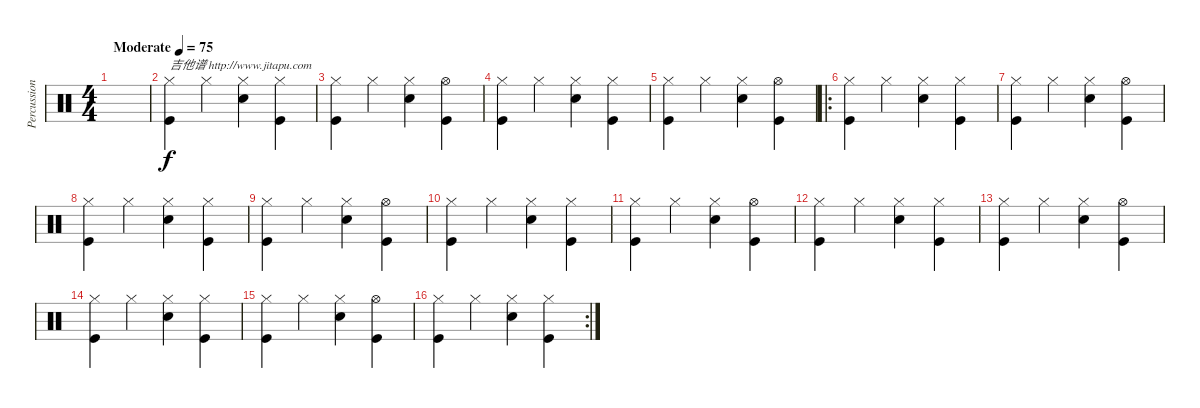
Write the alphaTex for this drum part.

\track ("Percussion" "Percussion") {instrument percussion}
\staff {score}
\articulation defaults
\ts (4 4)
\tempo (75 "Moderate")
\clef neutral
\ks c
|
("Kick (hit)" "Hi-Hat (closed)").4{txt "吉他谱 http://www.jitapu.com"} "Hi-Hat (closed)".4 ("Hi-Hat (closed)" "Snare (hit) 2").4 ("Hi-Hat (closed)" "Kick (hit)").4 |
("Kick (hit)" "Hi-Hat (closed)").4 "Hi-Hat (closed)".4 ("Hi-Hat (closed)" "Snare (hit) 2").4 ("Hi-Hat (open)" "Kick (hit)").4 |
("Kick (hit)" "Hi-Hat (closed)").4 "Hi-Hat (closed)".4 ("Hi-Hat (closed)" "Snare (hit) 2").4 ("Hi-Hat (closed)" "Kick (hit)").4 |
("Kick (hit)" "Hi-Hat (closed)").4 "Hi-Hat (closed)".4 ("Hi-Hat (closed)" "Snare (hit) 2").4 ("Hi-Hat (open)" "Kick (hit)").4 |
\ro
("Kick (hit)" "Hi-Hat (closed)").4 "Hi-Hat (closed)".4 ("Hi-Hat (closed)" "Snare (hit) 2").4 ("Hi-Hat (closed)" "Kick (hit)").4 |
("Kick (hit)" "Hi-Hat (closed)").4 "Hi-Hat (closed)".4 ("Hi-Hat (closed)" "Snare (hit) 2").4 ("Hi-Hat (open)" "Kick (hit)").4 |
("Kick (hit)" "Hi-Hat (closed)").4 "Hi-Hat (closed)".4 ("Hi-Hat (closed)" "Snare (hit) 2").4 ("Hi-Hat (closed)" "Kick (hit)").4 |
("Kick (hit)" "Hi-Hat (closed)").4 "Hi-Hat (closed)".4 ("Hi-Hat (closed)" "Snare (hit) 2").4 ("Hi-Hat (open)" "Kick (hit)").4 |
("Kick (hit)" "Hi-Hat (closed)").4 "Hi-Hat (closed)".4 ("Hi-Hat (closed)" "Snare (hit) 2").4 ("Hi-Hat (closed)" "Kick (hit)").4 |
("Kick (hit)" "Hi-Hat (closed)").4 "Hi-Hat (closed)".4 ("Hi-Hat (closed)" "Snare (hit) 2").4 ("Hi-Hat (open)" "Kick (hit)").4 |
("Kick (hit)" "Hi-Hat (closed)").4 "Hi-Hat (closed)".4 ("Hi-Hat (closed)" "Snare (hit) 2").4 ("Hi-Hat (closed)" "Kick (hit)").4 |
("Kick (hit)" "Hi-Hat (closed)").4 "Hi-Hat (closed)".4 ("Hi-Hat (closed)" "Snare (hit) 2").4 ("Hi-Hat (open)" "Kick (hit)").4 |
("Kick (hit)" "Hi-Hat (closed)").4 "Hi-Hat (closed)".4 ("Hi-Hat (closed)" "Snare (hit) 2").4 ("Hi-Hat (closed)" "Kick (hit)").4 |
("Kick (hit)" "Hi-Hat (closed)").4 "Hi-Hat (closed)".4 ("Hi-Hat (closed)" "Snare (hit) 2").4 ("Hi-Hat (open)" "Kick (hit)").4 |
\rc 2
("Kick (hit)" "Hi-Hat (closed)").4 "Hi-Hat (closed)".4 ("Hi-Hat (closed)" "Snare (hit) 2").4 ("Hi-Hat (closed)" "Kick (hit)").4
